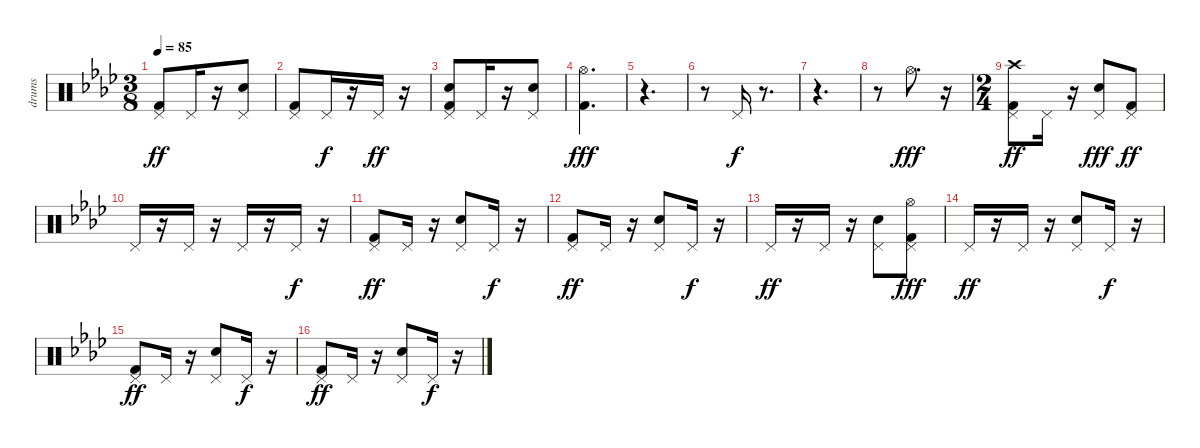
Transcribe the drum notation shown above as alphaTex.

\track ("drums" "drums") {instrument percussion}
\staff {score}
\articulation defaults
\ts (3 8)
\tempo 85
\clef neutral
\ks fminor
("Kick (hit) 2" "Pedal Hi-Hat (hit)").8{dy ff} "Pedal Hi-Hat (hit)".16 r.16 ("Electric Snare (hit)" "Pedal Hi-Hat (hit)").8 |
("Kick (hit) 2" "Pedal Hi-Hat (hit)").8 "Pedal Hi-Hat (hit)".16{dy f} r.16 "Pedal Hi-Hat (hit)".16{dy ff} r.16 |
("Electric Snare (hit)" "Pedal Hi-Hat (hit)" "Kick (hit) 2").8 "Pedal Hi-Hat (hit)".16 r.16 ("Pedal Hi-Hat (hit)" "Electric Snare (hit)").8 |
("Kick (hit) 2" "Hi-Hat (open)").4{d dy fff} |
r.4{d} |
r.8 "Pedal Hi-Hat (hit)".16{dy f} r.8{d} |
r.4{d} |
r.8 "Hi-Hat (open)".8{d dy fff} r.16 |
\ts (2 4)
("Crash high (hit)" "Pedal Hi-Hat (hit)" "Kick (hit) 2").8{dy ff} "Pedal Hi-Hat (hit)".16 r.16 ("Pedal Hi-Hat (hit)" "Electric Snare (hit)").8{dy fff} ("Pedal Hi-Hat (hit)" "Kick (hit) 2").8{dy ff} |
"Pedal Hi-Hat (hit)".16 r.16 "Pedal Hi-Hat (hit)".16 r.16 "Pedal Hi-Hat (hit)".16 r.16 "Pedal Hi-Hat (hit)".16{dy f} r.16 |
("Kick (hit) 2" "Pedal Hi-Hat (hit)").8{dy ff} "Pedal Hi-Hat (hit)".16 r.16 ("Electric Snare (hit)" "Pedal Hi-Hat (hit)").8 "Pedal Hi-Hat (hit)".16{dy f} r.16 |
("Kick (hit) 2" "Pedal Hi-Hat (hit)").8{dy ff} "Pedal Hi-Hat (hit)".16 r.16 ("Electric Snare (hit)" "Pedal Hi-Hat (hit)").8 "Pedal Hi-Hat (hit)".16{dy f} r.16 |
"Pedal Hi-Hat (hit)".16{dy ff} r.16 "Pedal Hi-Hat (hit)".16 r.16 ("Electric Snare (hit)" "Pedal Hi-Hat (hit)").8 ("Kick (hit) 2" "Pedal Hi-Hat (hit)" "Hi-Hat (open)").8{dy fff} |
"Pedal Hi-Hat (hit)".16{dy ff} r.16 "Pedal Hi-Hat (hit)".16 r.16 ("Electric Snare (hit)" "Pedal Hi-Hat (hit)").8 "Pedal Hi-Hat (hit)".16{dy f} r.16 |
("Kick (hit) 2" "Pedal Hi-Hat (hit)").8{dy ff} "Pedal Hi-Hat (hit)".16 r.16 ("Electric Snare (hit)" "Pedal Hi-Hat (hit)").8 "Pedal Hi-Hat (hit)".16{dy f} r.16 |
("Kick (hit) 2" "Pedal Hi-Hat (hit)").8{dy ff} "Pedal Hi-Hat (hit)".16 r.16 ("Electric Snare (hit)" "Pedal Hi-Hat (hit)").8 "Pedal Hi-Hat (hit)".16{dy f} r.16
